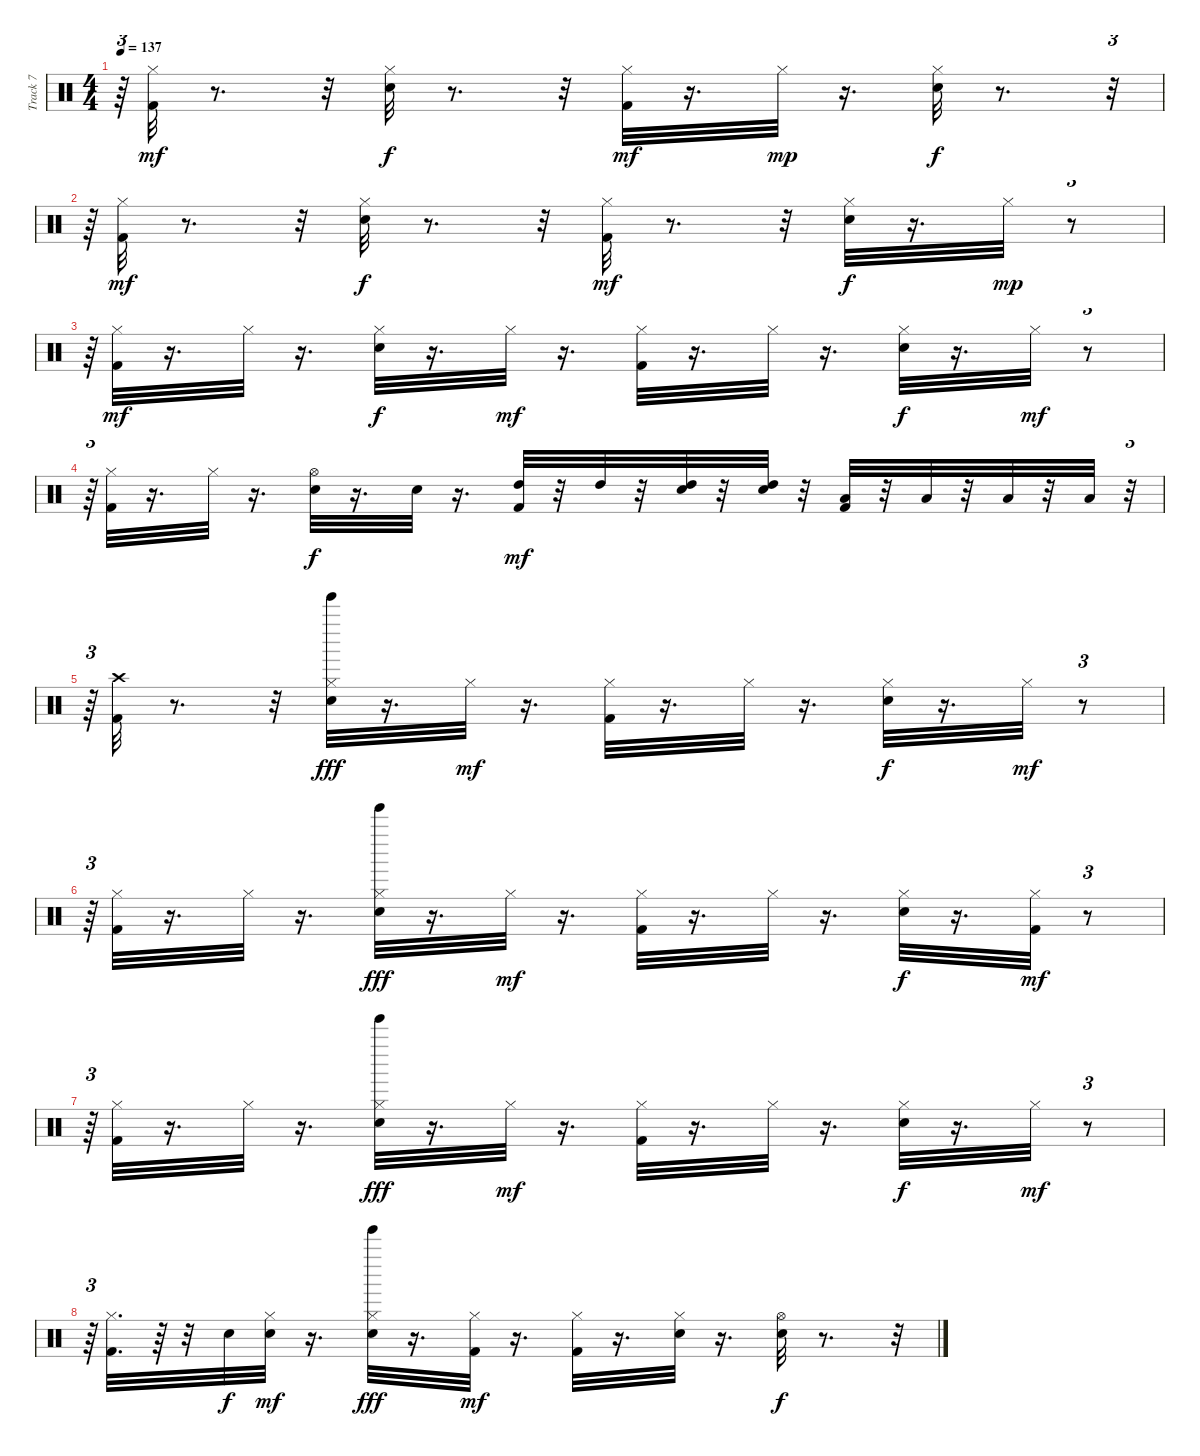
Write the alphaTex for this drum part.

\track ("Track 7" "Track 7") {instrument percussion}
\staff {score}
\articulation defaults
\ts (4 4)
\tempo 137
\clef neutral
\ks c
r.64{tu (3 2) dy mf} ("Hi-Hat (closed)" "Kick (hit) 2").32 r.8{d} r.32 ("Hi-Hat (closed)" "Snare (hit) 2").32{dy f} r.8{d} r.32 ("Hi-Hat (closed)" "Kick (hit) 2").32{dy mf} r.16{d} "Hi-Hat (closed)".32{dy mp} r.16{d} ("Hi-Hat (closed)" "Snare (hit) 2").32{dy f} r.8{d} r.32{tu (3 2)} |
r.64{tu (3 2)} ("Kick (hit) 2" "Hi-Hat (closed)").32{dy mf} r.8{d} r.32 ("Snare (hit) 2" "Hi-Hat (closed)").32{dy f} r.8{d} r.32 ("Kick (hit) 2" "Hi-Hat (closed)").32{dy mf} r.8{d} r.32 ("Snare (hit) 2" "Hi-Hat (closed)").32{dy f} r.16{d} "Hi-Hat (closed)".32{dy mp} r.8{tu (3 2)} |
r.64{tu (3 2)} ("Kick (hit) 2" "Hi-Hat (closed)").32{dy mf} r.16{d} "Hi-Hat (closed)".32 r.16{d} ("Snare (hit) 2" "Hi-Hat (closed)").32{dy f} r.16{d} "Hi-Hat (closed)".32{dy mf} r.16{d} ("Kick (hit) 2" "Hi-Hat (closed)").32 r.16{d} "Hi-Hat (closed)".32 r.16{d} ("Snare (hit) 2" "Hi-Hat (closed)").32{dy f} r.16{d} "Hi-Hat (closed)".32{dy mf} r.8{tu (3 2)} |
r.64{tu (3 2)} ("Kick (hit) 2" "Hi-Hat (closed)").32 r.16{d} "Hi-Hat (closed)".32 r.16{d} ("Hi-Hat (open)" "Snare (hit) 2").32{dy f} r.16{d} "Snare (hit) 2".32 r.16{d} ("High Tom (hit)" "Kick (hit) 2").32{dy mf} r.32 "High Tom (hit)".32 r.32 ("High Tom (hit)" "Snare (hit) 2").32 r.32 ("High Tom (hit)" "Snare (hit) 2").32 r.32 ("Kick (hit) 2" "Low Tom (hit)").32 r.32 "Low Tom (hit)".32 r.32 "Low Floor Tom (hit)".32 r.32 "Low Floor Tom (hit)".32 r.32{tu (3 2)} |
r.64{tu (3 2)} ("Crash high (hit)" "Kick (hit) 2").32 r.8{d} r.32 ("Tinkle Bell (hit)" "Hi-Hat (closed)" "Snare (hit) 2").32{dy fff} r.16{d} "Hi-Hat (closed)".32{dy mf} r.16{d} ("Hi-Hat (closed)" "Kick (hit) 2").32 r.16{d} "Hi-Hat (closed)".32 r.16{d} ("Hi-Hat (closed)" "Snare (hit) 2").32{dy f} r.16{d} "Hi-Hat (closed)".32{dy mf} r.8{tu (3 2)} |
r.64{tu (3 2)} ("Hi-Hat (closed)" "Kick (hit) 2").32 r.16{d} "Hi-Hat (closed)".32 r.16{d} ("Tinkle Bell (hit)" "Hi-Hat (closed)" "Snare (hit) 2").32{dy fff} r.16{d} "Hi-Hat (closed)".32{dy mf} r.16{d} ("Hi-Hat (closed)" "Kick (hit) 2").32 r.16{d} "Hi-Hat (closed)".32 r.16{d} ("Hi-Hat (closed)" "Snare (hit) 2").32{dy f} r.16{d} ("Hi-Hat (closed)" "Kick (hit) 2").32{dy mf} r.8{tu (3 2)} |
r.64{tu (3 2)} ("Kick (hit) 2" "Hi-Hat (closed)").32 r.16{d} "Hi-Hat (closed)".32 r.16{d} ("Tinkle Bell (hit)" "Snare (hit) 2" "Hi-Hat (closed)").32{dy fff} r.16{d} "Hi-Hat (closed)".32{dy mf} r.16{d} ("Kick (hit) 2" "Hi-Hat (closed)").32 r.16{d} "Hi-Hat (closed)".32 r.16{d} ("Snare (hit) 2" "Hi-Hat (closed)").32{dy f} r.16{d} "Hi-Hat (closed)".32{dy mf} r.8{tu (3 2)} |
r.64{tu (3 2)} ("Kick (hit) 2" "Hi-Hat (closed)").32{d} r.64 r.32 "Snare (hit) 2".32{dy f} ("Hi-Hat (closed)" "Snare (hit) 2").32{dy mf} r.16{d} ("Tinkle Bell (hit)" "Snare (hit) 2" "Hi-Hat (closed)").32{dy fff} r.16{d} ("Kick (hit) 2" "Hi-Hat (closed)").32{dy mf} r.16{d} ("Kick (hit) 2" "Hi-Hat (closed)").32 r.16{d} ("Snare (hit) 2" "Hi-Hat (closed)").32 r.16{d} ("Hi-Hat (open)" "Snare (hit) 2").32{dy f} r.8{d} r.32
